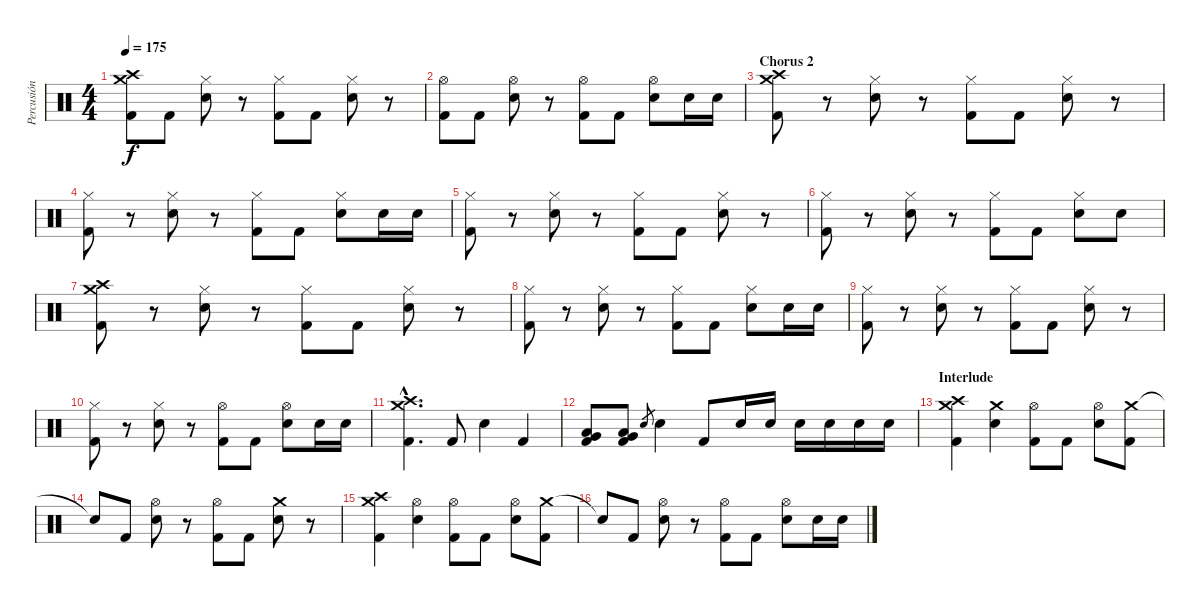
\track ("Percusión" "Percusión") {instrument percussion}
\staff {score}
\articulation defaults
\ts (4 4)
\tempo 175
\clef neutral
\ks c
("Crash high (hit)" "Crash medium (hit)" "Kick (hit) 2").8{dy f} "Kick (hit) 2".8 ("Hi-Hat (closed)" "Electric Snare (hit)").8 r.8 ("Hi-Hat (closed)" "Kick (hit) 2").8 "Kick (hit) 2".8 ("Hi-Hat (closed)" "Electric Snare (hit)").8 r.8 |
("Hi-Hat (open)" "Kick (hit) 2").8 "Kick (hit) 2".8 ("Hi-Hat (open)" "Electric Snare (hit)").8 r.8 ("Hi-Hat (open)" "Kick (hit) 2").8 "Kick (hit) 2".8 ("Hi-Hat (open)" "Electric Snare (hit)").8 "Electric Snare (hit)".16 "Electric Snare (hit)".16 |
\section ("" "Chorus 2")
("Crash high (hit)" "Crash medium (hit)" "Kick (hit) 2").8 r.8 ("Hi-Hat (closed)" "Electric Snare (hit)").8 r.8 ("Hi-Hat (closed)" "Kick (hit) 2").8 "Kick (hit) 2".8 ("Hi-Hat (closed)" "Electric Snare (hit)").8 r.8 |
("Hi-Hat (closed)" "Kick (hit) 2").8 r.8 ("Hi-Hat (closed)" "Electric Snare (hit)").8 r.8 ("Hi-Hat (closed)" "Kick (hit) 2").8 "Kick (hit) 2".8 ("Hi-Hat (closed)" "Electric Snare (hit)").8 "Electric Snare (hit)".16 "Electric Snare (hit)".16 |
("Hi-Hat (closed)" "Kick (hit) 2").8 r.8 ("Hi-Hat (closed)" "Electric Snare (hit)").8 r.8 ("Hi-Hat (closed)" "Kick (hit) 2").8 "Kick (hit) 2".8 ("Hi-Hat (closed)" "Electric Snare (hit)").8 r.8 |
("Hi-Hat (closed)" "Kick (hit) 2").8 r.8 ("Hi-Hat (closed)" "Electric Snare (hit)").8 r.8 ("Hi-Hat (closed)" "Kick (hit) 2").8 "Kick (hit) 2".8 ("Hi-Hat (closed)" "Electric Snare (hit)").8 "Electric Snare (hit)".8 |
("Crash high (hit)" "Crash medium (hit)" "Kick (hit) 2").8 r.8 ("Hi-Hat (closed)" "Electric Snare (hit)").8 r.8 ("Hi-Hat (closed)" "Kick (hit) 2").8 "Kick (hit) 2".8 ("Hi-Hat (closed)" "Electric Snare (hit)").8 r.8 |
("Hi-Hat (closed)" "Kick (hit) 2").8 r.8 ("Hi-Hat (closed)" "Electric Snare (hit)").8 r.8 ("Hi-Hat (closed)" "Kick (hit) 2").8 "Kick (hit) 2".8 ("Hi-Hat (closed)" "Electric Snare (hit)").8 "Electric Snare (hit)".16 "Electric Snare (hit)".16 |
("Hi-Hat (closed)" "Kick (hit) 2").8 r.8 ("Hi-Hat (closed)" "Electric Snare (hit)").8 r.8 ("Hi-Hat (closed)" "Kick (hit) 2").8 "Kick (hit) 2".8 ("Hi-Hat (closed)" "Electric Snare (hit)").8 r.8 |
("Hi-Hat (closed)" "Kick (hit) 2").8 r.8 ("Hi-Hat (closed)" "Electric Snare (hit)").8 r.8 ("Hi-Hat (open)" "Kick (hit) 2").8 "Kick (hit) 2".8 ("Hi-Hat (open)" "Electric Snare (hit)").8 "Electric Snare (hit)".16 "Electric Snare (hit)".16 |
("Crash high (hit)"{hac} "Crash medium (hit)"{hac} "Kick (hit) 2"{hac}).4{d} "Kick (hit) 2".8 "Electric Snare (hit)".4 "Kick (hit) 2".4 |
("Low Tom (hit)" "Very Low Tom (hit)" "Kick (hit) 2").8 ("Low Tom (hit)" "Very Low Tom (hit)" "Kick (hit) 2").8 "Electric Snare (hit)".8{gr} "Electric Snare (hit)".4 "Kick (hit) 2".8 "Electric Snare (hit)".16 "Electric Snare (hit)".16 "Electric Snare (hit)".16 "Electric Snare (hit)".16 "Electric Snare (hit)".16 "Electric Snare (hit)".16 |
\section ("" "Interlude")
("Crash high (hit)" "Crash medium (hit)" "Kick (hit) 2").4 ("Crash medium (hit)" "Electric Snare (hit)").4 ("Hi-Hat (open)" "Kick (hit) 2").8 "Kick (hit) 2".8 ("Hi-Hat (open)" "Electric Snare (hit)").8 ("Crash medium (hit)" "Kick (hit) 2").8 |
"Snare (hit)"{t}.8 "Kick (hit) 2".8 ("Hi-Hat (open)" "Electric Snare (hit)").8 r.8 ("Hi-Hat (open)" "Kick (hit) 2").8 "Kick (hit) 2".8 ("Crash medium (hit)" "Electric Snare (hit)").8 r.8 |
("Crash high (hit)" "Crash medium (hit)" "Kick (hit) 2").4 ("Hi-Hat (open)" "Electric Snare (hit)").4 ("Hi-Hat (open)" "Kick (hit) 2").8 "Kick (hit) 2".8 ("Hi-Hat (open)" "Electric Snare (hit)").8 ("Crash medium (hit)" "Kick (hit) 2").8 |
"Snare (hit)"{t}.8 "Kick (hit) 2".8 ("Hi-Hat (open)" "Electric Snare (hit)").8 r.8 ("Hi-Hat (open)" "Kick (hit) 2").8 "Kick (hit) 2".8 ("Hi-Hat (open)" "Electric Snare (hit)").8 "Electric Snare (hit)".16 "Electric Snare (hit)".16
